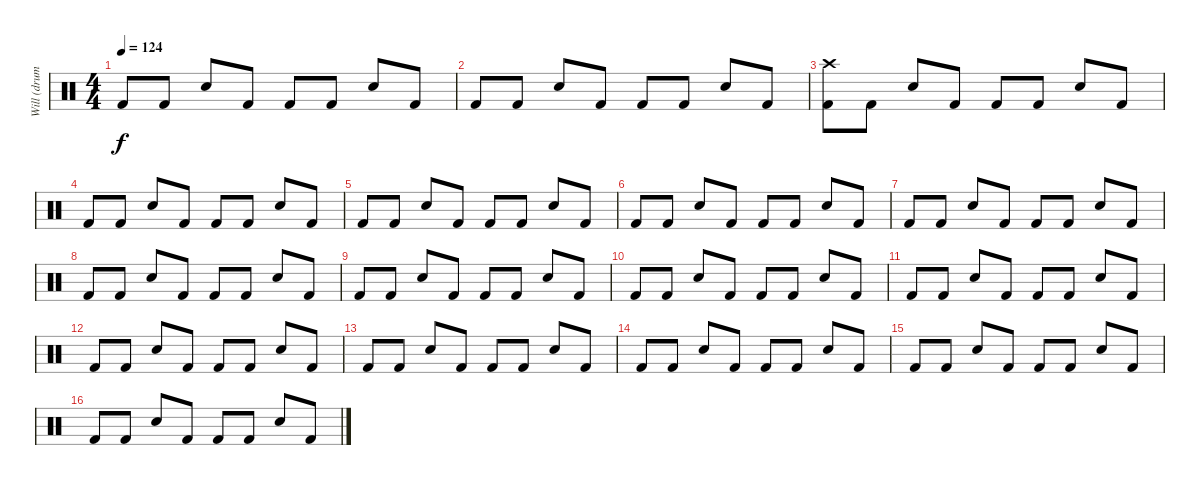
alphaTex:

\track ("Will (drums)" "Will (drum") {instrument percussion}
\staff {score}
\articulation defaults
\ts (4 4)
\tempo 124
\clef neutral
\ks c "Kick (hit) 2".8{dy f} "Kick (hit) 2".8 "Snare (hit) 2".8 "Kick (hit) 2".8 "Kick (hit) 2".8 "Kick (hit) 2".8 "Snare (hit) 2".8 "Kick (hit) 2".8
|
"Kick (hit) 2".8 "Kick (hit) 2".8 "Snare (hit) 2".8 "Kick (hit) 2".8 "Kick (hit) 2".8 "Kick (hit) 2".8 "Snare (hit) 2".8 "Kick (hit) 2".8 |
("Kick (hit) 2" "Crash high (hit)").8 "Kick (hit) 2".8 "Snare (hit) 2".8 "Kick (hit) 2".8 "Kick (hit) 2".8 "Kick (hit) 2".8 "Snare (hit) 2".8 "Kick (hit) 2".8 |
"Kick (hit) 2".8 "Kick (hit) 2".8 "Snare (hit) 2".8 "Kick (hit) 2".8 "Kick (hit) 2".8 "Kick (hit) 2".8 "Snare (hit) 2".8 "Kick (hit) 2".8 |
"Kick (hit) 2".8 "Kick (hit) 2".8 "Snare (hit) 2".8 "Kick (hit) 2".8 "Kick (hit) 2".8 "Kick (hit) 2".8 "Snare (hit) 2".8 "Kick (hit) 2".8 |
"Kick (hit) 2".8 "Kick (hit) 2".8 "Snare (hit) 2".8 "Kick (hit) 2".8 "Kick (hit) 2".8 "Kick (hit) 2".8 "Snare (hit) 2".8 "Kick (hit) 2".8 |
"Kick (hit) 2".8 "Kick (hit) 2".8 "Snare (hit) 2".8 "Kick (hit) 2".8 "Kick (hit) 2".8 "Kick (hit) 2".8 "Snare (hit) 2".8 "Kick (hit) 2".8 |
"Kick (hit) 2".8 "Kick (hit) 2".8 "Snare (hit) 2".8 "Kick (hit) 2".8 "Kick (hit) 2".8 "Kick (hit) 2".8 "Snare (hit) 2".8 "Kick (hit) 2".8 |
"Kick (hit) 2".8 "Kick (hit) 2".8 "Snare (hit) 2".8 "Kick (hit) 2".8 "Kick (hit) 2".8 "Kick (hit) 2".8 "Snare (hit) 2".8 "Kick (hit) 2".8 |
"Kick (hit) 2".8 "Kick (hit) 2".8 "Snare (hit) 2".8 "Kick (hit) 2".8 "Kick (hit) 2".8 "Kick (hit) 2".8 "Snare (hit) 2".8 "Kick (hit) 2".8 |
"Kick (hit) 2".8 "Kick (hit) 2".8 "Snare (hit) 2".8 "Kick (hit) 2".8 "Kick (hit) 2".8 "Kick (hit) 2".8 "Snare (hit) 2".8 "Kick (hit) 2".8 |
"Kick (hit) 2".8 "Kick (hit) 2".8 "Snare (hit) 2".8 "Kick (hit) 2".8 "Kick (hit) 2".8 "Kick (hit) 2".8 "Snare (hit) 2".8 "Kick (hit) 2".8 |
"Kick (hit) 2".8 "Kick (hit) 2".8 "Snare (hit) 2".8 "Kick (hit) 2".8 "Kick (hit) 2".8 "Kick (hit) 2".8 "Snare (hit) 2".8 "Kick (hit) 2".8 |
"Kick (hit) 2".8 "Kick (hit) 2".8 "Snare (hit) 2".8 "Kick (hit) 2".8 "Kick (hit) 2".8 "Kick (hit) 2".8 "Snare (hit) 2".8 "Kick (hit) 2".8 |
"Kick (hit) 2".8 "Kick (hit) 2".8 "Snare (hit) 2".8 "Kick (hit) 2".8 "Kick (hit) 2".8 "Kick (hit) 2".8 "Snare (hit) 2".8 "Kick (hit) 2".8 |
"Kick (hit) 2".8 "Kick (hit) 2".8 "Snare (hit) 2".8 "Kick (hit) 2".8 "Kick (hit) 2".8 "Kick (hit) 2".8 "Snare (hit) 2".8 "Kick (hit) 2".8
